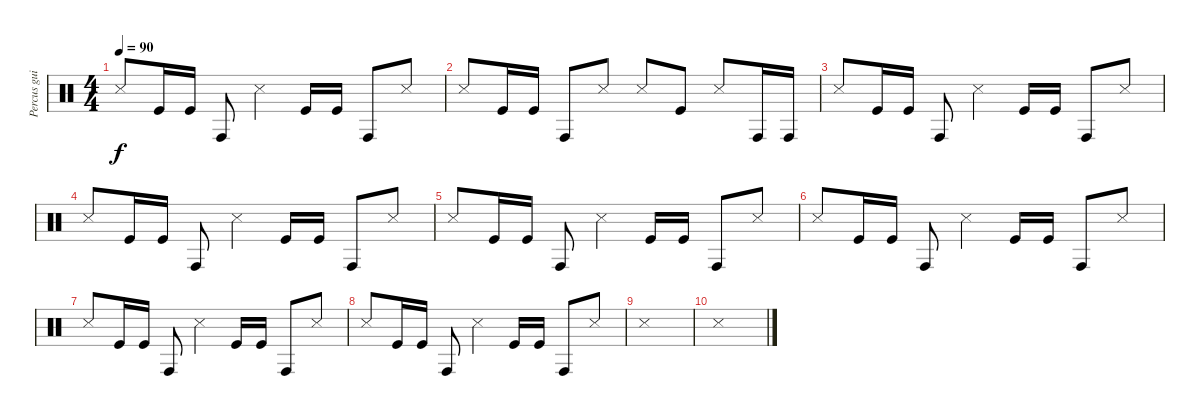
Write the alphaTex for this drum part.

\track ("Percus guitare" "Percus gui") {instrument percussion}
\staff {score}
\articulation defaults
\ts (4 4)
\tempo 90
\clef neutral
\ks c "Snare (side stick) 3".8{dy f} "Kick (hit)".16 "Kick (hit)".16 "Conga high (hit)".8 "Snare (side stick) 3".4 "Kick (hit)".16 "Kick (hit)".16 "Conga high (hit)".8 "Snare (side stick) 3".8
|
"Snare (side stick) 3".8 "Kick (hit)".16 "Kick (hit)".16 "Conga high (hit)".8 "Snare (side stick) 3".8 "Snare (side stick) 3".8 "Kick (hit)".8 "Snare (side stick) 3".8 "Conga high (hit)".16 "Conga high (hit)".16 |
"Snare (side stick) 3".8 "Kick (hit)".16 "Kick (hit)".16 "Conga high (hit)".8 "Snare (side stick) 3".4 "Kick (hit)".16 "Kick (hit)".16 "Conga high (hit)".8 "Snare (side stick) 3".8 |
"Snare (side stick) 3".8 "Kick (hit)".16 "Kick (hit)".16 "Conga high (hit)".8 "Snare (side stick) 3".4 "Kick (hit)".16 "Kick (hit)".16 "Conga high (hit)".8 "Snare (side stick) 3".8 |
"Snare (side stick) 3".8 "Kick (hit)".16 "Kick (hit)".16 "Conga high (hit)".8 "Snare (side stick) 3".4 "Kick (hit)".16 "Kick (hit)".16 "Conga high (hit)".8 "Snare (side stick) 3".8 |
"Snare (side stick) 3".8 "Kick (hit)".16 "Kick (hit)".16 "Conga high (hit)".8 "Snare (side stick) 3".4 "Kick (hit)".16 "Kick (hit)".16 "Conga high (hit)".8 "Snare (side stick) 3".8 |
"Snare (side stick) 3".8 "Kick (hit)".16 "Kick (hit)".16 "Conga high (hit)".8 "Snare (side stick) 3".4 "Kick (hit)".16 "Kick (hit)".16 "Conga high (hit)".8 "Snare (side stick) 3".8 |
"Snare (side stick) 3".8 "Kick (hit)".16 "Kick (hit)".16 "Conga high (hit)".8 "Snare (side stick) 3".4 "Kick (hit)".16 "Kick (hit)".16 "Conga high (hit)".8 "Snare (side stick) 3".8 |
"Snare (side stick) 3".1 |
"Snare (side stick) 3".1
